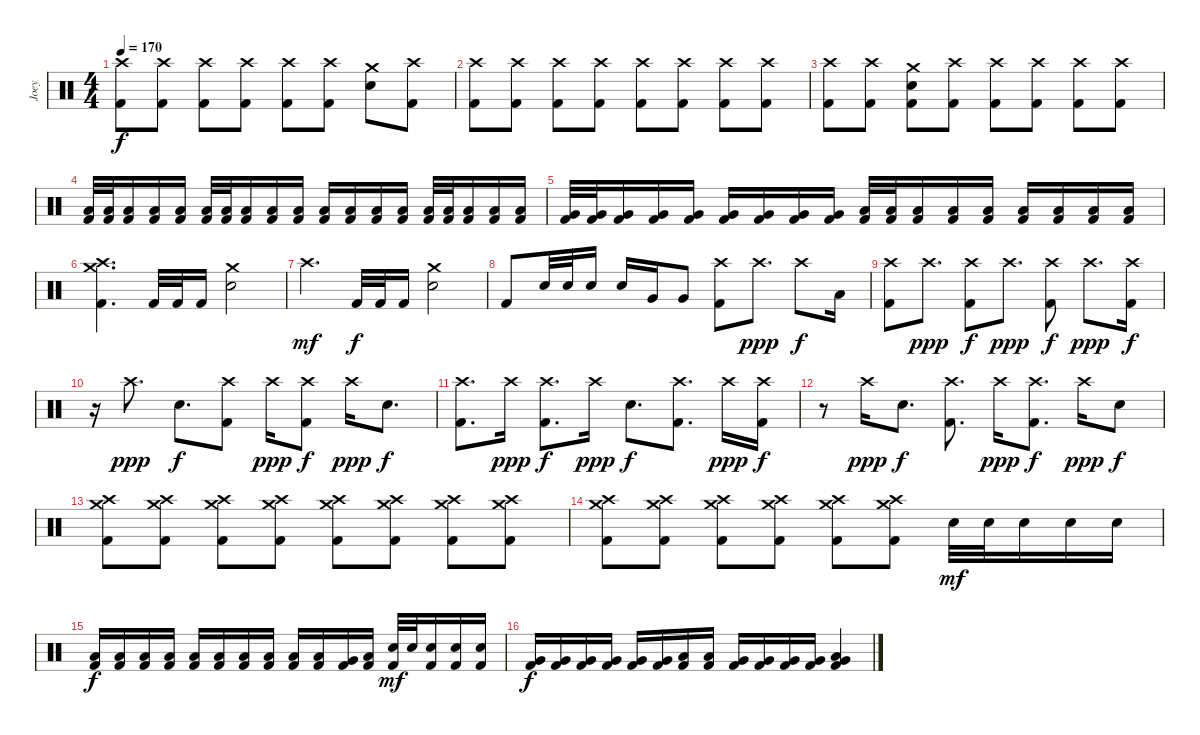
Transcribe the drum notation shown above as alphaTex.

\track ("Joey" "Joey") {instrument percussion}
\staff {score}
\articulation defaults
\ts (4 4)
\tempo 170
\clef neutral
\ks c
("Crash high (hit)" "Kick (hit) 2").8{dy f} ("Crash high (hit)" "Kick (hit) 2").8 ("Crash high (hit)" "Kick (hit) 2").8 ("Crash high (hit)" "Kick (hit) 2").8 ("Crash high (hit)" "Kick (hit) 2").8 ("Crash high (hit)" "Kick (hit) 2").8 ("Crash medium (hit)" "Electric Snare (hit)").8 ("Crash high (hit)" "Kick (hit) 2").8 |
("Crash high (hit)" "Kick (hit) 2").8 ("Crash high (hit)" "Kick (hit) 2").8 ("Crash high (hit)" "Kick (hit) 2").8 ("Crash high (hit)" "Kick (hit) 2").8 ("Crash high (hit)" "Kick (hit) 2").8 ("Crash high (hit)" "Kick (hit) 2").8 ("Crash high (hit)" "Kick (hit) 2").8 ("Crash high (hit)" "Kick (hit) 2").8 |
("Crash high (hit)" "Kick (hit) 2").8 ("Crash high (hit)" "Kick (hit) 2").8 ("Crash medium (hit)" "Electric Snare (hit)" "Kick (hit) 2").8 ("Crash high (hit)" "Kick (hit) 2").8 ("Crash high (hit)" "Kick (hit) 2").8 ("Crash high (hit)" "Kick (hit) 2").8 ("Crash high (hit)" "Kick (hit) 2").8 ("Crash high (hit)" "Kick (hit) 2").8 |
("Low Tom (hit)" "Kick (hit) 2").32 ("Low Tom (hit)" "Kick (hit) 2").32 ("Low Tom (hit)" "Kick (hit) 2").16 ("Low Tom (hit)" "Kick (hit) 2").16 ("Low Tom (hit)" "Kick (hit) 2").16 ("Low Tom (hit)" "Kick (hit) 2").32 ("Low Tom (hit)" "Kick (hit) 2").32 ("Low Tom (hit)" "Kick (hit) 2").16 ("Low Tom (hit)" "Kick (hit) 2").16 ("Low Tom (hit)" "Kick (hit) 2").16 ("Low Tom (hit)" "Kick (hit) 2").16 ("Low Tom (hit)" "Kick (hit) 2").16 ("Low Tom (hit)" "Kick (hit) 2").16 ("Low Tom (hit)" "Kick (hit) 2").16 ("Low Tom (hit)" "Kick (hit) 2").32 ("Low Tom (hit)" "Kick (hit) 2").32 ("Low Tom (hit)" "Kick (hit) 2").16 ("Low Tom (hit)" "Kick (hit) 2").16 ("Low Tom (hit)" "Kick (hit) 2").16 |
("Very Low Tom (hit)" "Kick (hit) 2").32 ("Very Low Tom (hit)" "Kick (hit) 2").32 ("Very Low Tom (hit)" "Kick (hit) 2").16 ("Very Low Tom (hit)" "Kick (hit) 2").16 ("Very Low Tom (hit)" "Kick (hit) 2").16 ("Very Low Tom (hit)" "Kick (hit) 2").16 ("Very Low Tom (hit)" "Kick (hit) 2").16 ("Very Low Tom (hit)" "Kick (hit) 2").16 ("Very Low Tom (hit)" "Kick (hit) 2").16 ("Low Floor Tom (hit)" "Kick (hit) 2").32 ("Low Floor Tom (hit)" "Kick (hit) 2").32 ("Low Floor Tom (hit)" "Kick (hit) 2").16 ("Low Floor Tom (hit)" "Kick (hit) 2").16 ("Low Floor Tom (hit)" "Kick (hit) 2").16 ("Low Floor Tom (hit)" "Kick (hit) 2").16 ("Low Floor Tom (hit)" "Kick (hit) 2").16 ("Low Floor Tom (hit)" "Kick (hit) 2").16 ("Low Floor Tom (hit)" "Kick (hit) 2").16 |
("Crash high (hit)" "Crash medium (hit)" "Kick (hit) 2").4{d} "Kick (hit) 2".32 "Kick (hit) 2".32 "Kick (hit) 2".16 ("Crash medium (hit)" "Electric Snare (hit)").2 |
"Crash high (hit)".4{d dy mf} "Kick (hit) 2".32{dy f} "Kick (hit) 2".32 "Kick (hit) 2".16 ("Crash medium (hit)" "Electric Snare (hit)").2 |
"Kick (hit) 2".8 "Electric Snare (hit)".32 "Electric Snare (hit)".32 "Electric Snare (hit)".16 "Electric Snare (hit)".16 "Very Low Tom (hit)".16 "Very Low Tom (hit)".8 ("Crash high (hit)" "Kick (hit) 2").8 "Crash high (hit)".8{d dy ppp} "Crash high (hit)".8{dy f} "Low Tom (hit)".16 |
("Crash high (hit)" "Kick (hit) 2").8 "Crash high (hit)".8{d dy ppp} ("Crash high (hit)" "Kick (hit) 2").8{dy f} "Crash high (hit)".8{d dy ppp} ("Crash high (hit)" "Kick (hit) 2").8{dy f} "Crash high (hit)".8{d dy ppp} ("Crash high (hit)" "Kick (hit) 2").16{dy f} |
r.16 "Crash high (hit)".8{d dy ppp} "Electric Snare (hit)".8{d dy f} ("Crash high (hit)" "Kick (hit) 2").8 "Crash high (hit)".16{dy ppp} ("Crash high (hit)" "Kick (hit) 2").8{dy f} "Crash high (hit)".16{dy ppp} "Electric Snare (hit)".8{d dy f} |
("Crash high (hit)" "Kick (hit) 2").8{d} "Crash high (hit)".16{dy ppp} ("Crash high (hit)" "Kick (hit) 2").8{d dy f} "Crash high (hit)".16{dy ppp} "Electric Snare (hit)".8{d dy f} ("Crash high (hit)" "Kick (hit) 2").8{d} "Crash high (hit)".16{dy ppp} ("Crash high (hit)" "Kick (hit) 2").16{dy f} |
r.8 "Crash high (hit)".16{dy ppp} "Electric Snare (hit)".8{d dy f} ("Crash high (hit)" "Kick (hit) 2").8{d} "Crash high (hit)".16{dy ppp} ("Crash high (hit)" "Kick (hit) 2").8{d dy f} "Crash high (hit)".16{dy ppp} "Electric Snare (hit)".8{dy f} |
("Crash high (hit)" "Crash medium (hit)" "Kick (hit) 2").8 ("Crash high (hit)" "Crash medium (hit)" "Kick (hit) 2").8 ("Crash high (hit)" "Crash medium (hit)" "Kick (hit) 2").8 ("Crash high (hit)" "Crash medium (hit)" "Kick (hit) 2").8 ("Crash high (hit)" "Crash medium (hit)" "Kick (hit) 2").8 ("Crash high (hit)" "Crash medium (hit)" "Kick (hit) 2").8 ("Crash high (hit)" "Crash medium (hit)" "Kick (hit) 2").8 ("Crash high (hit)" "Crash medium (hit)" "Kick (hit) 2").8 |
("Crash high (hit)" "Crash medium (hit)" "Kick (hit) 2").8 ("Crash high (hit)" "Crash medium (hit)" "Kick (hit) 2").8 ("Crash high (hit)" "Crash medium (hit)" "Kick (hit) 2").8 ("Crash high (hit)" "Crash medium (hit)" "Kick (hit) 2").8 ("Crash high (hit)" "Crash medium (hit)" "Kick (hit) 2").8 ("Crash high (hit)" "Crash medium (hit)" "Kick (hit) 2").8 "Electric Snare (hit)".32{dy mf} "Electric Snare (hit)".32 "Electric Snare (hit)".16 "Electric Snare (hit)".16 "Electric Snare (hit)".16 |
("Low Floor Tom (hit)" "Kick (hit) 2").16{dy f} ("Low Floor Tom (hit)" "Kick (hit) 2").16 ("Low Floor Tom (hit)" "Kick (hit) 2").16 ("Low Floor Tom (hit)" "Kick (hit) 2").16 ("Low Floor Tom (hit)" "Kick (hit) 2").16 ("Low Floor Tom (hit)" "Kick (hit) 2").16 ("Low Floor Tom (hit)" "Kick (hit) 2").16 ("Low Floor Tom (hit)" "Kick (hit) 2").16 ("Low Floor Tom (hit)" "Kick (hit) 2").16 ("Low Floor Tom (hit)" "Kick (hit) 2").16 ("Very Low Tom (hit)" "Kick (hit) 2").16 ("Low Floor Tom (hit)" "Kick (hit) 2").16 ("Electric Snare (hit)" "Kick (hit) 2").32{dy mf} "Electric Snare (hit)".32 ("Electric Snare (hit)" "Kick (hit) 2").16 ("Electric Snare (hit)" "Kick (hit) 2").16 ("Electric Snare (hit)" "Kick (hit) 2").16 |
("Very Low Tom (hit)" "Kick (hit) 2").16{dy f} ("Very Low Tom (hit)" "Kick (hit) 2").16 ("Very Low Tom (hit)" "Kick (hit) 2").16 ("Very Low Tom (hit)" "Kick (hit) 2").16 ("Very Low Tom (hit)" "Kick (hit) 2").16 ("Very Low Tom (hit)" "Kick (hit) 2").16 ("Low Floor Tom (hit)" "Kick (hit) 2").16 ("Low Floor Tom (hit)" "Kick (hit) 2").16 ("Very Low Tom (hit)" "Kick (hit) 2").16 ("Very Low Tom (hit)" "Kick (hit) 2").16 ("Very Low Tom (hit)" "Kick (hit) 2").16 ("Very Low Tom (hit)" "Kick (hit) 2").16 ("Very Low Tom (hit)" "Low Floor Tom (hit)" "Kick (hit) 2").4
